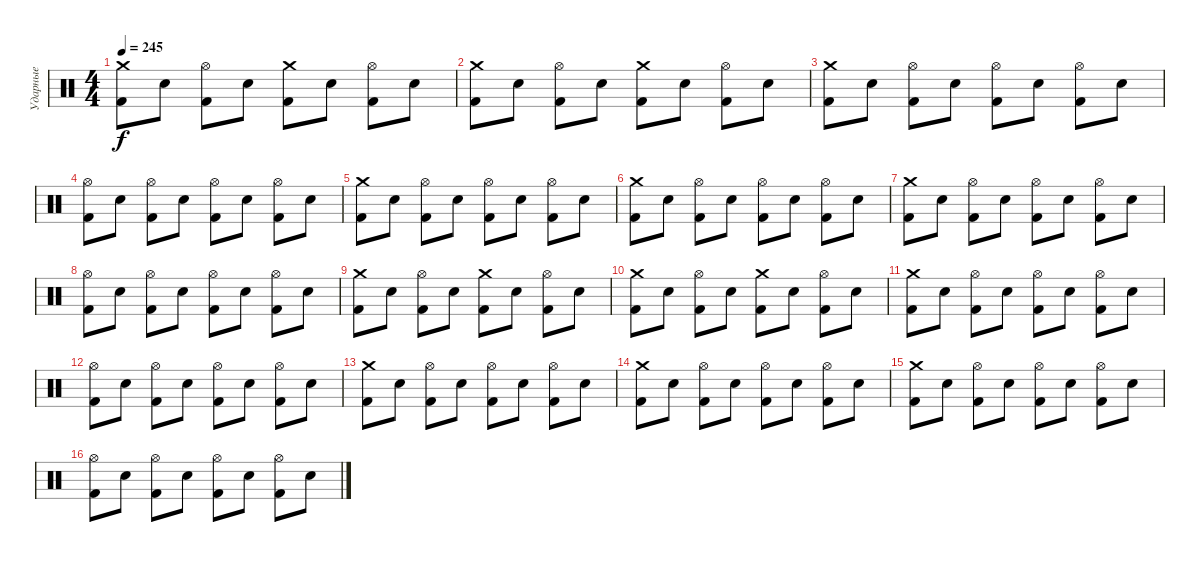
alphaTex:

\track ("Ударные" "Ударные") {instrument percussion}
\staff {score}
\articulation defaults
\ts (4 4)
\tempo 245
\clef neutral
\ks c
("Crash medium (hit)" "Kick (hit) 2").8{dy f} "Snare (hit) 2".8 ("Hi-Hat (open)" "Kick (hit) 2").8 "Snare (hit) 2".8 ("Crash medium (hit)" "Kick (hit) 2").8 "Snare (hit) 2".8 ("Hi-Hat (open)" "Kick (hit) 2").8 "Snare (hit) 2".8 |
("Crash medium (hit)" "Kick (hit) 2").8 "Snare (hit) 2".8 ("Hi-Hat (open)" "Kick (hit) 2").8 "Snare (hit) 2".8 ("Crash medium (hit)" "Kick (hit) 2").8 "Snare (hit) 2".8 ("Hi-Hat (open)" "Kick (hit) 2").8 "Snare (hit) 2".8 |
("Crash medium (hit)" "Kick (hit) 2").8 "Snare (hit) 2".8 ("Hi-Hat (open)" "Kick (hit) 2").8 "Snare (hit) 2".8 ("Hi-Hat (open)" "Kick (hit) 2").8 "Snare (hit) 2".8 ("Hi-Hat (open)" "Kick (hit) 2").8 "Snare (hit) 2".8 |
("Hi-Hat (open)" "Kick (hit) 2").8 "Snare (hit) 2".8 ("Hi-Hat (open)" "Kick (hit) 2").8 "Snare (hit) 2".8 ("Hi-Hat (open)" "Kick (hit) 2").8 "Snare (hit) 2".8 ("Hi-Hat (open)" "Kick (hit) 2").8 "Snare (hit) 2".8 |
("Crash medium (hit)" "Kick (hit) 2").8 "Snare (hit) 2".8 ("Hi-Hat (open)" "Kick (hit) 2").8 "Snare (hit) 2".8 ("Hi-Hat (open)" "Kick (hit) 2").8 "Snare (hit) 2".8 ("Hi-Hat (open)" "Kick (hit) 2").8 "Snare (hit) 2".8 |
("Crash medium (hit)" "Kick (hit) 2").8 "Snare (hit) 2".8 ("Hi-Hat (open)" "Kick (hit) 2").8 "Snare (hit) 2".8 ("Hi-Hat (open)" "Kick (hit) 2").8 "Snare (hit) 2".8 ("Hi-Hat (open)" "Kick (hit) 2").8 "Snare (hit) 2".8 |
("Crash medium (hit)" "Kick (hit) 2").8 "Snare (hit) 2".8 ("Hi-Hat (open)" "Kick (hit) 2").8 "Snare (hit) 2".8 ("Hi-Hat (open)" "Kick (hit) 2").8 "Snare (hit) 2".8 ("Hi-Hat (open)" "Kick (hit) 2").8 "Snare (hit) 2".8 |
("Hi-Hat (open)" "Kick (hit) 2").8 "Snare (hit) 2".8 ("Hi-Hat (open)" "Kick (hit) 2").8 "Snare (hit) 2".8 ("Hi-Hat (open)" "Kick (hit) 2").8 "Snare (hit) 2".8 ("Hi-Hat (open)" "Kick (hit) 2").8 "Snare (hit) 2".8 |
("Crash medium (hit)" "Kick (hit) 2").8 "Snare (hit) 2".8 ("Hi-Hat (open)" "Kick (hit) 2").8 "Snare (hit) 2".8 ("Crash medium (hit)" "Kick (hit) 2").8 "Snare (hit) 2".8 ("Hi-Hat (open)" "Kick (hit) 2").8 "Snare (hit) 2".8 |
("Crash medium (hit)" "Kick (hit) 2").8 "Snare (hit) 2".8 ("Hi-Hat (open)" "Kick (hit) 2").8 "Snare (hit) 2".8 ("Crash medium (hit)" "Kick (hit) 2").8 "Snare (hit) 2".8 ("Hi-Hat (open)" "Kick (hit) 2").8 "Snare (hit) 2".8 |
("Crash medium (hit)" "Kick (hit) 2").8 "Snare (hit) 2".8 ("Hi-Hat (open)" "Kick (hit) 2").8 "Snare (hit) 2".8 ("Hi-Hat (open)" "Kick (hit) 2").8 "Snare (hit) 2".8 ("Hi-Hat (open)" "Kick (hit) 2").8 "Snare (hit) 2".8 |
("Hi-Hat (open)" "Kick (hit) 2").8 "Snare (hit) 2".8 ("Hi-Hat (open)" "Kick (hit) 2").8 "Snare (hit) 2".8 ("Hi-Hat (open)" "Kick (hit) 2").8 "Snare (hit) 2".8 ("Hi-Hat (open)" "Kick (hit) 2").8 "Snare (hit) 2".8 |
("Crash medium (hit)" "Kick (hit) 2").8 "Snare (hit) 2".8 ("Hi-Hat (open)" "Kick (hit) 2").8 "Snare (hit) 2".8 ("Hi-Hat (open)" "Kick (hit) 2").8 "Snare (hit) 2".8 ("Hi-Hat (open)" "Kick (hit) 2").8 "Snare (hit) 2".8 |
("Crash medium (hit)" "Kick (hit) 2").8 "Snare (hit) 2".8 ("Hi-Hat (open)" "Kick (hit) 2").8 "Snare (hit) 2".8 ("Hi-Hat (open)" "Kick (hit) 2").8 "Snare (hit) 2".8 ("Hi-Hat (open)" "Kick (hit) 2").8 "Snare (hit) 2".8 |
("Crash medium (hit)" "Kick (hit) 2").8 "Snare (hit) 2".8 ("Hi-Hat (open)" "Kick (hit) 2").8 "Snare (hit) 2".8 ("Hi-Hat (open)" "Kick (hit) 2").8 "Snare (hit) 2".8 ("Hi-Hat (open)" "Kick (hit) 2").8 "Snare (hit) 2".8 |
("Hi-Hat (open)" "Kick (hit) 2").8 "Snare (hit) 2".8 ("Hi-Hat (open)" "Kick (hit) 2").8 "Snare (hit) 2".8 ("Hi-Hat (open)" "Kick (hit) 2").8 "Snare (hit) 2".8 ("Hi-Hat (open)" "Kick (hit) 2").8 "Snare (hit) 2".8
